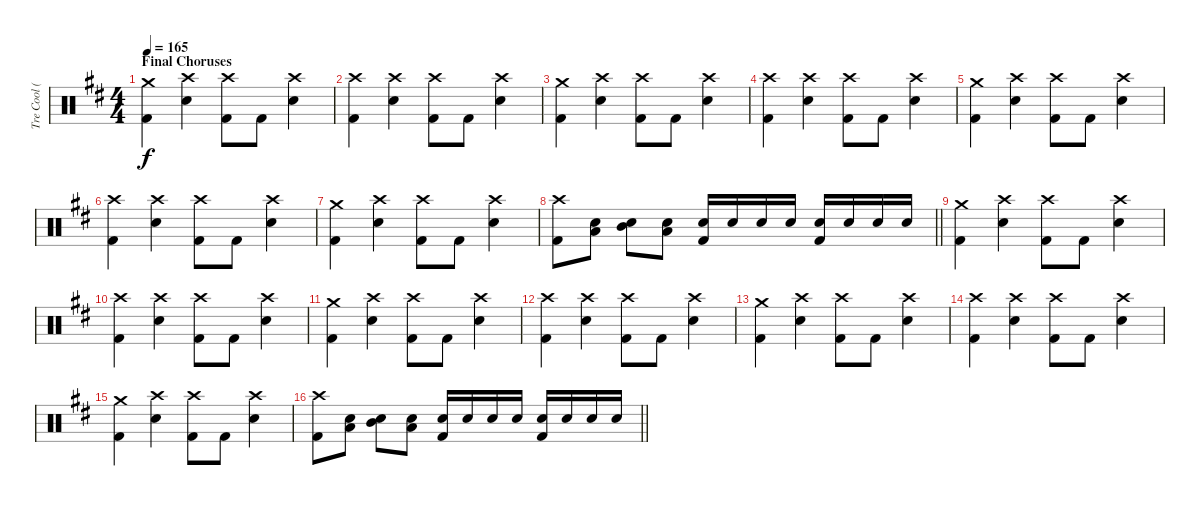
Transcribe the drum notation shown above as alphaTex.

\track ("Tre Cool (Drums)" "Tre Cool (") {instrument percussion}
\staff {score}
\articulation defaults
\ts (4 4)
\section ("" "Final Choruses")
\tempo 165
\clef neutral
\ks d
("Crash medium (hit)" "Kick (hit) 2").4{dy f} ("Crash high (hit)" "Electric Snare (hit)").4 ("Crash high (hit)" "Kick (hit) 2").8 "Kick (hit) 2".8 ("Crash high (hit)" "Electric Snare (hit)").4 |
("Crash high (hit)" "Kick (hit) 2").4 ("Crash high (hit)" "Electric Snare (hit)").4 ("Crash high (hit)" "Kick (hit) 2").8 "Kick (hit) 2".8 ("Crash high (hit)" "Electric Snare (hit)").4 |
("Crash medium (hit)" "Kick (hit) 2").4 ("Crash high (hit)" "Electric Snare (hit)").4 ("Crash high (hit)" "Kick (hit) 2").8 "Kick (hit) 2".8 ("Crash high (hit)" "Electric Snare (hit)").4 |
("Crash high (hit)" "Kick (hit) 2").4 ("Crash high (hit)" "Electric Snare (hit)").4 ("Crash high (hit)" "Kick (hit) 2").8 "Kick (hit) 2".8 ("Crash high (hit)" "Electric Snare (hit)").4 |
("Crash medium (hit)" "Kick (hit) 2").4 ("Crash high (hit)" "Electric Snare (hit)").4 ("Crash high (hit)" "Kick (hit) 2").8 "Kick (hit) 2".8 ("Crash high (hit)" "Electric Snare (hit)").4 |
("Crash high (hit)" "Kick (hit) 2").4 ("Crash high (hit)" "Electric Snare (hit)").4 ("Crash high (hit)" "Kick (hit) 2").8 "Kick (hit) 2".8 ("Crash high (hit)" "Electric Snare (hit)").4 |
("Crash medium (hit)" "Kick (hit) 2").4 ("Crash high (hit)" "Electric Snare (hit)").4 ("Crash high (hit)" "Kick (hit) 2").8 "Kick (hit) 2".8 ("Crash high (hit)" "Electric Snare (hit)").4 |
\barLineRight lightlight
("Crash high (hit)" "Kick (hit) 2").8 ("Low Tom (hit)" "Electric Snare (hit)").8 ("Mid Tom (hit)" "Electric Snare (hit)").8 ("Low Tom (hit)" "Electric Snare (hit)").8 ("Electric Snare (hit)" "Kick (hit) 2").16 "Electric Snare (hit)".16 "Electric Snare (hit)".16 "Electric Snare (hit)".16 ("Electric Snare (hit)" "Kick (hit) 2").16 "Electric Snare (hit)".16 "Electric Snare (hit)".16 "Electric Snare (hit)".16 |
("Crash medium (hit)" "Kick (hit) 2").4 ("Crash high (hit)" "Electric Snare (hit)").4 ("Crash high (hit)" "Kick (hit) 2").8 "Kick (hit) 2".8 ("Crash high (hit)" "Electric Snare (hit)").4 |
("Crash high (hit)" "Kick (hit) 2").4 ("Crash high (hit)" "Electric Snare (hit)").4 ("Crash high (hit)" "Kick (hit) 2").8 "Kick (hit) 2".8 ("Crash high (hit)" "Electric Snare (hit)").4 |
("Crash medium (hit)" "Kick (hit) 2").4 ("Crash high (hit)" "Electric Snare (hit)").4 ("Crash high (hit)" "Kick (hit) 2").8 "Kick (hit) 2".8 ("Crash high (hit)" "Electric Snare (hit)").4 |
("Crash high (hit)" "Kick (hit) 2").4 ("Crash high (hit)" "Electric Snare (hit)").4 ("Crash high (hit)" "Kick (hit) 2").8 "Kick (hit) 2".8 ("Crash high (hit)" "Electric Snare (hit)").4 |
("Crash medium (hit)" "Kick (hit) 2").4 ("Crash high (hit)" "Electric Snare (hit)").4 ("Crash high (hit)" "Kick (hit) 2").8 "Kick (hit) 2".8 ("Crash high (hit)" "Electric Snare (hit)").4 |
("Crash high (hit)" "Kick (hit) 2").4 ("Crash high (hit)" "Electric Snare (hit)").4 ("Crash high (hit)" "Kick (hit) 2").8 "Kick (hit) 2".8 ("Crash high (hit)" "Electric Snare (hit)").4 |
("Crash medium (hit)" "Kick (hit) 2").4 ("Crash high (hit)" "Electric Snare (hit)").4 ("Crash high (hit)" "Kick (hit) 2").8 "Kick (hit) 2".8 ("Crash high (hit)" "Electric Snare (hit)").4 |
\barLineRight lightlight
("Crash high (hit)" "Kick (hit) 2").8 ("Low Tom (hit)" "Electric Snare (hit)").8 ("Mid Tom (hit)" "Electric Snare (hit)").8 ("Low Tom (hit)" "Electric Snare (hit)").8 ("Electric Snare (hit)" "Kick (hit) 2").16 "Electric Snare (hit)".16 "Electric Snare (hit)".16 "Electric Snare (hit)".16 ("Electric Snare (hit)" "Kick (hit) 2").16 "Electric Snare (hit)".16 "Electric Snare (hit)".16 "Electric Snare (hit)".16
